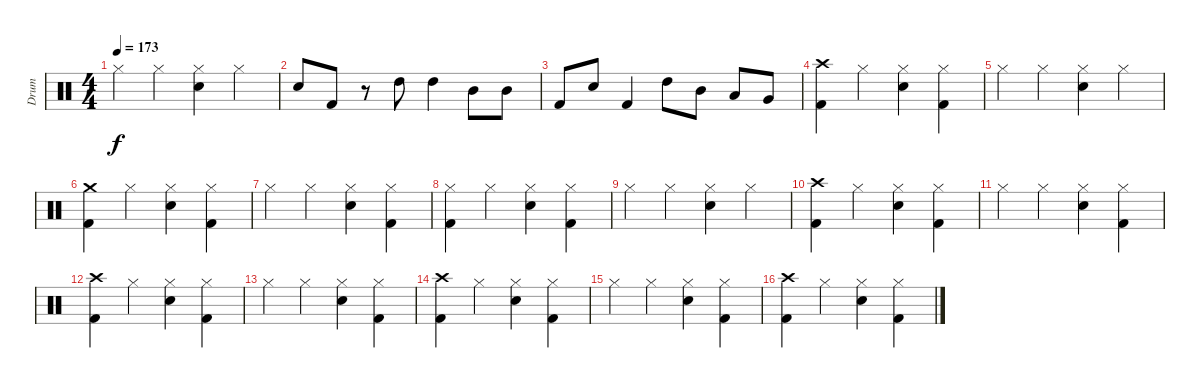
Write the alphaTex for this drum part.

\track ("Drum" "Drum") {instrument percussion}
\staff {score}
\articulation defaults
\ts (4 4)
\tempo 173
\clef neutral
\ks c "Hi-Hat (closed)".4{dy f} "Hi-Hat (closed)".4
("Hi-Hat (closed)" "Electric Snare (hit)").4 "Hi-Hat (closed)".4 |
"Electric Snare (hit)".8 "Kick (hit) 2".8 r.8 "High Tom (hit)".8 "High Tom (hit)".4 "Mid Tom (hit)".8 "Mid Tom (hit)".8 |
"Kick (hit) 2".8 "Electric Snare (hit)".8 "Kick (hit) 2".4 "High Tom (hit)".8 "Mid Tom (hit)".8 "Low Tom (hit)".8 "Very Low Tom (hit)".8 |
("Crash high (hit)" "Kick (hit) 2").4 "Hi-Hat (closed)".4 ("Hi-Hat (closed)" "Electric Snare (hit)").4 ("Hi-Hat (closed)" "Kick (hit) 2").4 |
"Hi-Hat (closed)".4 "Hi-Hat (closed)".4 ("Hi-Hat (closed)" "Electric Snare (hit)").4 "Hi-Hat (closed)".4 |
("Crash medium (hit)" "Kick (hit) 2").4 "Hi-Hat (closed)".4 ("Hi-Hat (closed)" "Electric Snare (hit)").4 ("Hi-Hat (closed)" "Kick (hit) 2").4 |
"Hi-Hat (closed)".4 "Hi-Hat (closed)".4 ("Hi-Hat (closed)" "Electric Snare (hit)").4 ("Hi-Hat (closed)" "Kick (hit) 2").4 |
("Hi-Hat (closed)" "Kick (hit) 2").4 "Hi-Hat (closed)".4 ("Hi-Hat (closed)" "Electric Snare (hit)").4 ("Hi-Hat (closed)" "Kick (hit) 2").4 |
"Hi-Hat (closed)".4 "Hi-Hat (closed)".4 ("Hi-Hat (closed)" "Electric Snare (hit)").4 "Hi-Hat (closed)".4 |
("Crash high (hit)" "Kick (hit) 2").4 "Hi-Hat (closed)".4 ("Hi-Hat (closed)" "Electric Snare (hit)").4 ("Hi-Hat (closed)" "Kick (hit) 2").4 |
"Hi-Hat (closed)".4 "Hi-Hat (closed)".4 ("Hi-Hat (closed)" "Electric Snare (hit)").4 ("Hi-Hat (closed)" "Kick (hit) 2").4 |
("Crash high (hit)" "Kick (hit) 2").4 "Hi-Hat (closed)".4 ("Hi-Hat (closed)" "Electric Snare (hit)").4 ("Hi-Hat (closed)" "Kick (hit) 2").4 |
"Hi-Hat (closed)".4 "Hi-Hat (closed)".4 ("Hi-Hat (closed)" "Electric Snare (hit)").4 ("Hi-Hat (closed)" "Kick (hit) 2").4 |
("Crash high (hit)" "Kick (hit) 2").4 "Hi-Hat (closed)".4 ("Hi-Hat (closed)" "Electric Snare (hit)").4 ("Hi-Hat (closed)" "Kick (hit) 2").4 |
"Hi-Hat (closed)".4 "Hi-Hat (closed)".4 ("Hi-Hat (closed)" "Electric Snare (hit)").4 ("Hi-Hat (closed)" "Kick (hit) 2").4 |
("Crash high (hit)" "Kick (hit) 2").4 "Hi-Hat (closed)".4 ("Hi-Hat (closed)" "Electric Snare (hit)").4 ("Hi-Hat (closed)" "Kick (hit) 2").4
